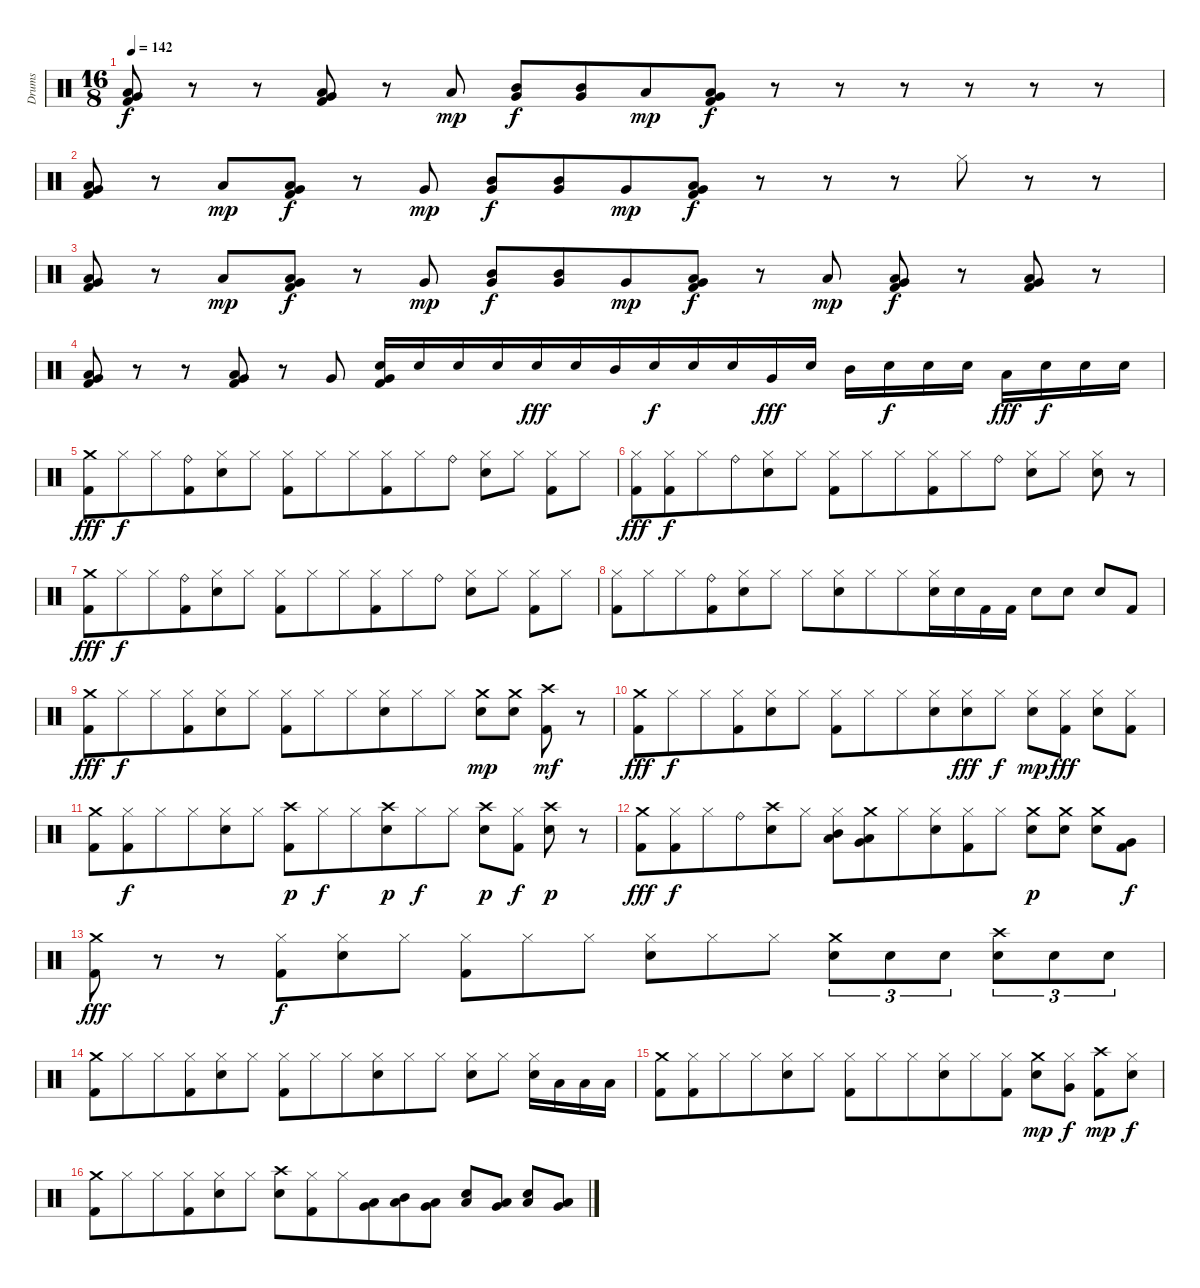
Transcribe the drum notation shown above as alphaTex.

\track ("Drums" "Drums") {instrument percussion}
\staff {score}
\articulation defaults
\ts (16 8)
\tempo 142
\clef neutral
\ks c
("Very Low Tom (hit)" "Low Floor Tom (hit)" "Kick (hit) 2").8{dy f} r.8 r.8 ("Low Tom (hit)" "Very Low Tom (hit)" "Kick (hit) 2").8 r.8 "Low Floor Tom (hit)".8{dy mp} ("Mid Tom (hit)" "Very Low Tom (hit)").8{dy f beam merge} ("Mid Tom (hit)" "Very Low Tom (hit)").8{beam merge} "Low Floor Tom (hit)".8{dy mp} ("Very Low Tom (hit)" "Low Floor Tom (hit)" "Kick (hit) 2").8{dy f} r.8 r.8 r.8 r.8 r.8 r.8 |
("Very Low Tom (hit)" "Low Floor Tom (hit)" "Kick (hit) 2").8 r.8 "Low Floor Tom (hit)".8{dy mp} ("Low Tom (hit)" "Very Low Tom (hit)" "Kick (hit) 2").8{dy f} r.8 "Very Low Tom (hit)".8{dy mp} ("Mid Tom (hit)" "Very Low Tom (hit)").8{dy f beam merge} ("Mid Tom (hit)" "Very Low Tom (hit)").8{beam merge} "Very Low Tom (hit)".8{dy mp} ("Very Low Tom (hit)" "Low Floor Tom (hit)" "Kick (hit) 2").8{dy f} r.8 r.8 r.8 "Hi-Hat (closed)".8 r.8 r.8 |
("Very Low Tom (hit)" "Low Floor Tom (hit)" "Kick (hit) 2").8 r.8 "Low Floor Tom (hit)".8{dy mp} ("Low Tom (hit)" "Very Low Tom (hit)" "Kick (hit) 2").8{dy f} r.8 "Very Low Tom (hit)".8{dy mp} ("Mid Tom (hit)" "Very Low Tom (hit)").8{dy f beam merge} ("Mid Tom (hit)" "Very Low Tom (hit)").8{beam merge} "Very Low Tom (hit)".8{dy mp} ("Very Low Tom (hit)" "Low Floor Tom (hit)" "Kick (hit) 2").8{dy f} r.8 "Low Floor Tom (hit)".8{dy mp} ("Low Tom (hit)" "Very Low Tom (hit)" "Kick (hit) 2").8{dy f} r.8 ("Very Low Tom (hit)" "Low Floor Tom (hit)" "Kick (hit) 2").8 r.8 |
("Very Low Tom (hit)" "Low Floor Tom (hit)" "Kick (hit) 2").8 r.8 r.8 ("Low Tom (hit)" "Very Low Tom (hit)" "Kick (hit) 2").8 r.8 "Very Low Tom (hit)".8 ("Electric Snare (hit)" "Very Low Tom (hit)" "Kick (hit) 2").16 "Electric Snare (hit)".16{beam merge} "Electric Snare (hit)".16 "Electric Snare (hit)".16{beam merge} "Electric Snare (hit)".16{dy fff} "Electric Snare (hit)".16 "Mid Tom (hit)".16 "Electric Snare (hit)".16{dy f beam merge} "Electric Snare (hit)".16 "Electric Snare (hit)".16{beam merge} "Very Low Tom (hit)".16{dy fff beam merge} "Electric Snare (hit)".16 "Mid Tom (hit)".16 "Electric Snare (hit)".16{dy f beam merge} "Electric Snare (hit)".16 "Electric Snare (hit)".16 "Low Floor Tom (hit)".16{dy fff} "Electric Snare (hit)".16{dy f beam merge} "Electric Snare (hit)".16 "Electric Snare (hit)".16 |
("Crash medium (hit)" "Kick (hit) 2").8{dy fff beam merge} "Hi-Hat (closed)".8{dy f beam merge} "Hi-Hat (closed)".8 ("Ride (bell)" "Kick (hit) 2").8{beam merge} ("Hi-Hat (closed)" "Electric Snare (hit)").8{beam merge} "Hi-Hat (closed)".8 ("Hi-Hat (closed)" "Kick (hit) 2").8{beam merge} "Hi-Hat (closed)".8{beam merge} "Hi-Hat (closed)".8 ("Hi-Hat (closed)" "Kick (hit) 2").8{beam merge} "Hi-Hat (closed)".8{beam merge} "Ride (bell)".8 ("Hi-Hat (closed)" "Electric Snare (hit)").8{beam merge} "Hi-Hat (closed)".8 ("Hi-Hat (closed)" "Kick (hit) 2").8{beam merge} "Hi-Hat (closed)".8 |
("Hi-Hat (closed)" "Kick (hit) 2").8{dy fff beam merge} ("Hi-Hat (closed)" "Kick (hit) 2").8{dy f beam merge} "Hi-Hat (closed)".8 "Ride (bell)".8{beam merge} ("Hi-Hat (closed)" "Electric Snare (hit)").8{beam merge} "Hi-Hat (closed)".8 ("Hi-Hat (closed)" "Kick (hit) 2").8{beam merge} "Hi-Hat (closed)".8{beam merge} "Hi-Hat (closed)".8 ("Hi-Hat (closed)" "Kick (hit) 2").8{beam merge} "Hi-Hat (closed)".8{beam merge} "Ride (bell)".8 ("Hi-Hat (closed)" "Electric Snare (hit)").8{beam merge} "Hi-Hat (closed)".8 ("Hi-Hat (closed)" "Electric Snare (hit)").8{beam merge} r.8 |
("Crash medium (hit)" "Kick (hit) 2").8{dy fff beam merge} "Hi-Hat (closed)".8{dy f beam merge} "Hi-Hat (closed)".8 ("Ride (bell)" "Kick (hit) 2").8{beam merge} ("Hi-Hat (closed)" "Electric Snare (hit)").8{beam merge} "Hi-Hat (closed)".8 ("Hi-Hat (closed)" "Kick (hit) 2").8{beam merge} "Hi-Hat (closed)".8{beam merge} "Hi-Hat (closed)".8 ("Hi-Hat (closed)" "Kick (hit) 2").8{beam merge} "Hi-Hat (closed)".8{beam merge} "Ride (bell)".8 ("Hi-Hat (closed)" "Electric Snare (hit)").8{beam merge} "Hi-Hat (closed)".8 ("Hi-Hat (closed)" "Kick (hit) 2").8{beam merge} "Hi-Hat (closed)".8 |
("Hi-Hat (closed)" "Kick (hit) 2").8{beam merge} "Hi-Hat (closed)".8{beam merge} "Hi-Hat (closed)".8 ("Ride (bell)" "Kick (hit) 2").8{beam merge} ("Hi-Hat (closed)" "Electric Snare (hit)").8{beam merge} "Hi-Hat (closed)".8 "Hi-Hat (closed)".8{beam merge} ("Hi-Hat (closed)" "Electric Snare (hit)").8{beam merge} "Hi-Hat (closed)".8 "Hi-Hat (closed)".8{beam merge} ("Hi-Hat (closed)" "Electric Snare (hit)").16{beam merge} "Electric Snare (hit)".16{beam merge} "Kick (hit) 2".16{beam merge} "Kick (hit) 2".16{beam split} "Electric Snare (hit)".8{beam merge} "Electric Snare (hit)".8 "Electric Snare (hit)".8{beam merge} "Kick (hit) 2".8 |
("Crash medium (hit)" "Kick (hit) 2").8{dy fff beam merge} "Hi-Hat (closed)".8{dy f beam merge} "Hi-Hat (closed)".8 ("Hi-Hat (closed)" "Kick (hit) 2").8{beam merge} ("Hi-Hat (closed)" "Electric Snare (hit)").8{beam merge} "Hi-Hat (closed)".8 ("Hi-Hat (closed)" "Kick (hit) 2").8{beam merge} "Hi-Hat (closed)".8{beam merge} "Hi-Hat (closed)".8 ("Hi-Hat (closed)" "Electric Snare (hit)").8{beam merge} "Hi-Hat (closed)".8{beam merge} "Hi-Hat (closed)".8 ("Crash medium (hit)" "Electric Snare (hit)").8{dy mp beam merge} ("Crash medium (hit)" "Electric Snare (hit)").8 ("Crash high (hit)" "Kick (hit) 2").8{dy mf} r.8 |
("Crash medium (hit)" "Kick (hit) 2").8{dy fff beam merge} "Hi-Hat (closed)".8{dy f beam merge} "Hi-Hat (closed)".8 ("Hi-Hat (closed)" "Kick (hit) 2").8{beam merge} ("Hi-Hat (closed)" "Electric Snare (hit)").8{beam merge} "Hi-Hat (closed)".8 ("Hi-Hat (closed)" "Kick (hit) 2").8{beam merge} "Hi-Hat (closed)".8{beam merge} "Hi-Hat (closed)".8 ("Hi-Hat (closed)" "Electric Snare (hit)").8{beam merge} ("Hi-Hat (closed)" "Electric Snare (hit)").8{dy fff beam merge} "Hi-Hat (closed)".8{dy f} ("Hi-Hat (closed)" "Electric Snare (hit)").8{dy mp beam merge} ("Hi-Hat (closed)" "Kick (hit) 2").8{dy fff} ("Hi-Hat (closed)" "Electric Snare (hit)").8{beam merge} ("Hi-Hat (closed)" "Kick (hit) 2").8 |
("Crash medium (hit)" "Kick (hit) 2").8{beam merge} ("Hi-Hat (closed)" "Kick (hit) 2").8{dy f beam merge} "Hi-Hat (closed)".8 "Hi-Hat (closed)".8{beam merge} ("Hi-Hat (closed)" "Electric Snare (hit)").8{beam merge} "Hi-Hat (closed)".8 ("Crash high (hit)" "Kick (hit) 2").8{dy p beam merge} "Hi-Hat (closed)".8{dy f beam merge} "Hi-Hat (closed)".8 ("Crash high (hit)" "Electric Snare (hit)").8{dy p beam merge} "Hi-Hat (closed)".8{dy f beam merge} "Hi-Hat (closed)".8 ("Crash high (hit)" "Electric Snare (hit)").8{dy p beam merge} ("Hi-Hat (closed)" "Kick (hit) 2").8{dy f} ("Crash high (hit)" "Electric Snare (hit)").8{dy p} r.8 |
("Crash medium (hit)" "Kick (hit) 2").8{dy fff beam merge} ("Hi-Hat (closed)" "Kick (hit) 2").8{dy f beam merge} "Hi-Hat (closed)".8 "Ride (bell)".8{beam merge} ("Crash high (hit)" "Electric Snare (hit)").8{beam merge} "Hi-Hat (closed)".8 ("Hi-Hat (closed)" "Mid Tom (hit)" "Low Tom (hit)").8{beam merge} ("Crash medium (hit)" "Very Low Tom (hit)" "Low Floor Tom (hit)").8{beam merge} "Hi-Hat (closed)".8 ("Hi-Hat (closed)" "Electric Snare (hit)").8{beam merge} ("Hi-Hat (closed)" "Kick (hit) 2").8{beam merge} "Hi-Hat (closed)".8 ("Crash medium (hit)" "Electric Snare (hit)").8{dy p beam merge} ("Crash medium (hit)" "Electric Snare (hit)").8 ("Crash medium (hit)" "Electric Snare (hit)").8{beam merge} ("Very Low Tom (hit)" "Kick (hit) 2").8{dy f} |
("Crash medium (hit)" "Kick (hit) 2").8{dy fff} r.8 r.8 ("Hi-Hat (closed)" "Kick (hit) 2").8{dy f beam merge} ("Hi-Hat (closed)" "Electric Snare (hit)").8{beam merge} "Hi-Hat (closed)".8 ("Hi-Hat (closed)" "Kick (hit) 2").8{beam merge} "Hi-Hat (closed)".8{beam merge} "Hi-Hat (closed)".8{beam split} ("Hi-Hat (closed)" "Electric Snare (hit)").8{beam merge} "Hi-Hat (closed)".8{beam merge} "Hi-Hat (closed)".8 ("Crash medium (hit)" "Electric Snare (hit)").8{tu (3 2)} "Electric Snare (hit)".8{tu (3 2) beam merge} "Electric Snare (hit)".8{tu (3 2)} ("Crash high (hit)" "Electric Snare (hit)").8{tu (3 2)} "Electric Snare (hit)".8{tu (3 2) beam merge} "Electric Snare (hit)".8{tu (3 2)} |
("Crash medium (hit)" "Kick (hit) 2").8{beam merge} "Hi-Hat (closed)".8{beam merge} "Hi-Hat (closed)".8 ("Hi-Hat (closed)" "Kick (hit) 2").8{beam merge} ("Hi-Hat (closed)" "Electric Snare (hit)").8{beam merge} "Hi-Hat (closed)".8 ("Hi-Hat (closed)" "Kick (hit) 2").8{beam merge} "Hi-Hat (closed)".8{beam merge} "Hi-Hat (closed)".8 ("Hi-Hat (closed)" "Electric Snare (hit)").8{beam merge} "Hi-Hat (closed)".8{beam merge} "Hi-Hat (closed)".8 ("Hi-Hat (closed)" "Electric Snare (hit)").8{beam merge} "Hi-Hat (closed)".8 ("Hi-Hat (closed)" "Electric Snare (hit)").16 "Low Floor Tom (hit)".16{beam merge} "Low Floor Tom (hit)".16 "Low Floor Tom (hit)".16 |
("Crash medium (hit)" "Kick (hit) 2").8{beam merge} ("Hi-Hat (closed)" "Kick (hit) 2").8{beam merge} "Hi-Hat (closed)".8 "Hi-Hat (closed)".8{beam merge} ("Hi-Hat (closed)" "Electric Snare (hit)").8{beam merge} "Hi-Hat (closed)".8 ("Hi-Hat (closed)" "Kick (hit) 2").8{beam merge} "Hi-Hat (closed)".8{beam merge} "Hi-Hat (closed)".8 ("Hi-Hat (closed)" "Electric Snare (hit)").8{beam merge} "Hi-Hat (closed)".8{beam merge} ("Hi-Hat (closed)" "Kick (hit) 2").8 ("Crash medium (hit)" "Electric Snare (hit)").8{dy mp beam merge} ("Hi-Hat (closed)" "Very Low Tom (hit)").8{dy f} ("Crash high (hit)" "Kick (hit) 2").8{dy mp beam merge} ("Hi-Hat (closed)" "Electric Snare (hit)").8{dy f} |
("Crash medium (hit)" "Kick (hit) 2").8{beam merge} "Hi-Hat (closed)".8{beam merge} "Hi-Hat (closed)".8 ("Hi-Hat (closed)" "Kick (hit) 2").8{beam merge} ("Hi-Hat (closed)" "Electric Snare (hit)").8{beam merge} "Hi-Hat (closed)".8 ("Crash high (hit)" "Electric Snare (hit)").8{beam merge} ("Hi-Hat (closed)" "Kick (hit) 2").8{beam merge} "Hi-Hat (closed)".8 ("Very Low Tom (hit)" "Low Floor Tom (hit)").8{beam merge} ("Mid Tom (hit)" "Low Tom (hit)").8{beam merge} ("Low Tom (hit)" "Very Low Tom (hit)").8 ("Electric Snare (hit)" "Low Floor Tom (hit)").8{beam merge} ("Very Low Tom (hit)" "Low Floor Tom (hit)").8 ("Electric Snare (hit)" "Low Floor Tom (hit)").8{beam merge} ("Very Low Tom (hit)" "Low Floor Tom (hit)").8
